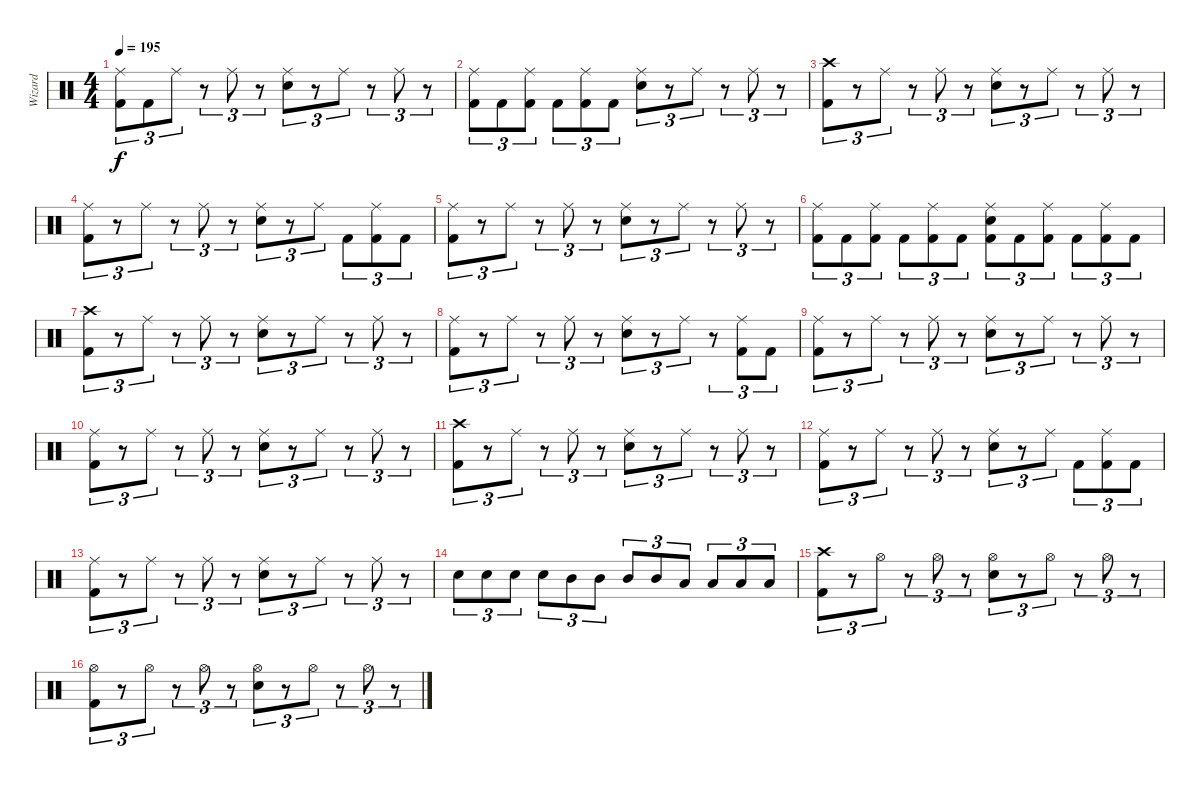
\track ("Wizard" "Wizard") {instrument percussion}
\staff {score}
\articulation defaults
\ts (4 4)
\tempo 195
\clef neutral
\ks c
("Ride (middle)" "Kick (hit) 2").8{tu (3 2) dy f} "Kick (hit) 2".8{tu (3 2)} "Ride (middle)".8{tu (3 2)} r.8{tu (3 2)} "Ride (middle)".8{tu (3 2)} r.8{tu (3 2)} ("Ride (middle)" "Snare (hit) 2").8{tu (3 2)} r.8{tu (3 2)} "Ride (middle)".8{tu (3 2)} r.8{tu (3 2)} "Ride (middle)".8{tu (3 2)} r.8{tu (3 2)} |
("Ride (middle)" "Kick (hit) 2").8{tu (3 2)} "Kick (hit) 2".8{tu (3 2)} ("Ride (middle)" "Kick (hit) 2").8{tu (3 2)} "Kick (hit) 2".8{tu (3 2)} ("Ride (middle)" "Kick (hit) 2").8{tu (3 2)} "Kick (hit) 2".8{tu (3 2)} ("Ride (middle)" "Snare (hit) 2").8{tu (3 2)} r.8{tu (3 2)} "Ride (middle)".8{tu (3 2)} r.8{tu (3 2)} "Ride (middle)".8{tu (3 2)} r.8{tu (3 2)} |
("Crash high (hit)" "Kick (hit) 2").8{tu (3 2)} r.8{tu (3 2)} "Ride (middle)".8{tu (3 2)} r.8{tu (3 2)} "Ride (middle)".8{tu (3 2)} r.8{tu (3 2)} ("Ride (middle)" "Snare (hit) 2").8{tu (3 2)} r.8{tu (3 2)} "Ride (middle)".8{tu (3 2)} r.8{tu (3 2)} "Ride (middle)".8{tu (3 2)} r.8{tu (3 2)} |
("Ride (middle)" "Kick (hit) 2").8{tu (3 2)} r.8{tu (3 2)} "Ride (middle)".8{tu (3 2)} r.8{tu (3 2)} "Ride (middle)".8{tu (3 2)} r.8{tu (3 2)} ("Ride (middle)" "Snare (hit) 2").8{tu (3 2)} r.8{tu (3 2)} "Ride (middle)".8{tu (3 2)} "Kick (hit) 2".8{tu (3 2)} ("Ride (middle)" "Kick (hit) 2").8{tu (3 2)} "Kick (hit) 2".8{tu (3 2)} |
("Ride (middle)" "Kick (hit) 2").8{tu (3 2)} r.8{tu (3 2)} "Ride (middle)".8{tu (3 2)} r.8{tu (3 2)} "Ride (middle)".8{tu (3 2)} r.8{tu (3 2)} ("Ride (middle)" "Snare (hit) 2").8{tu (3 2)} r.8{tu (3 2)} "Ride (middle)".8{tu (3 2)} r.8{tu (3 2)} "Ride (middle)".8{tu (3 2)} r.8{tu (3 2)} |
("Ride (middle)" "Kick (hit) 2").8{tu (3 2)} "Kick (hit) 2".8{tu (3 2)} ("Ride (middle)" "Kick (hit) 2").8{tu (3 2)} "Kick (hit) 2".8{tu (3 2)} ("Ride (middle)" "Kick (hit) 2").8{tu (3 2)} "Kick (hit) 2".8{tu (3 2)} ("Ride (middle)" "Snare (hit) 2" "Kick (hit) 2").8{tu (3 2)} "Kick (hit) 2".8{tu (3 2)} ("Ride (middle)" "Kick (hit) 2").8{tu (3 2)} "Kick (hit) 2".8{tu (3 2)} ("Ride (middle)" "Kick (hit) 2").8{tu (3 2)} "Kick (hit) 2".8{tu (3 2)} |
("Crash high (hit)" "Kick (hit) 2").8{tu (3 2)} r.8{tu (3 2)} "Ride (middle)".8{tu (3 2)} r.8{tu (3 2)} "Ride (middle)".8{tu (3 2)} r.8{tu (3 2)} ("Ride (middle)" "Snare (hit) 2").8{tu (3 2)} r.8{tu (3 2)} "Ride (middle)".8{tu (3 2)} r.8{tu (3 2)} "Ride (middle)".8{tu (3 2)} r.8{tu (3 2)} |
("Ride (middle)" "Kick (hit) 2").8{tu (3 2)} r.8{tu (3 2)} "Ride (middle)".8{tu (3 2)} r.8{tu (3 2)} "Ride (middle)".8{tu (3 2)} r.8{tu (3 2)} ("Ride (middle)" "Snare (hit) 2").8{tu (3 2)} r.8{tu (3 2)} "Ride (middle)".8{tu (3 2)} r.8{tu (3 2)} ("Ride (middle)" "Kick (hit) 2").8{tu (3 2)} "Kick (hit) 2".8{tu (3 2)} |
("Ride (middle)" "Kick (hit) 2").8{tu (3 2)} r.8{tu (3 2)} "Ride (middle)".8{tu (3 2)} r.8{tu (3 2)} "Ride (middle)".8{tu (3 2)} r.8{tu (3 2)} ("Ride (middle)" "Snare (hit) 2").8{tu (3 2)} r.8{tu (3 2)} "Ride (middle)".8{tu (3 2)} r.8{tu (3 2)} "Ride (middle)".8{tu (3 2)} r.8{tu (3 2)} |
("Ride (middle)" "Kick (hit) 2").8{tu (3 2)} r.8{tu (3 2)} "Ride (middle)".8{tu (3 2)} r.8{tu (3 2)} "Ride (middle)".8{tu (3 2)} r.8{tu (3 2)} ("Ride (middle)" "Snare (hit) 2").8{tu (3 2)} r.8{tu (3 2)} "Ride (middle)".8{tu (3 2)} r.8{tu (3 2)} "Ride (middle)".8{tu (3 2)} r.8{tu (3 2)} |
("Crash high (hit)" "Kick (hit) 2").8{tu (3 2)} r.8{tu (3 2)} "Ride (middle)".8{tu (3 2)} r.8{tu (3 2)} "Ride (middle)".8{tu (3 2)} r.8{tu (3 2)} ("Ride (middle)" "Snare (hit) 2").8{tu (3 2)} r.8{tu (3 2)} "Ride (middle)".8{tu (3 2)} r.8{tu (3 2)} "Ride (middle)".8{tu (3 2)} r.8{tu (3 2)} |
("Ride (middle)" "Kick (hit) 2").8{tu (3 2)} r.8{tu (3 2)} "Ride (middle)".8{tu (3 2)} r.8{tu (3 2)} "Ride (middle)".8{tu (3 2)} r.8{tu (3 2)} ("Ride (middle)" "Snare (hit) 2").8{tu (3 2)} r.8{tu (3 2)} "Ride (middle)".8{tu (3 2)} "Kick (hit) 2".8{tu (3 2)} ("Ride (middle)" "Kick (hit) 2").8{tu (3 2)} "Kick (hit) 2".8{tu (3 2)} |
("Ride (middle)" "Kick (hit) 2").8{tu (3 2)} r.8{tu (3 2)} "Ride (middle)".8{tu (3 2)} r.8{tu (3 2)} "Ride (middle)".8{tu (3 2)} r.8{tu (3 2)} ("Ride (middle)" "Snare (hit) 2").8{tu (3 2)} r.8{tu (3 2)} "Ride (middle)".8{tu (3 2)} r.8{tu (3 2)} "Ride (middle)".8{tu (3 2)} r.8{tu (3 2)} |
"Snare (hit) 2".8{tu (3 2)} "Snare (hit) 2".8{tu (3 2)} "Snare (hit) 2".8{tu (3 2)} "Snare (hit) 2".8{tu (3 2)} "Mid Tom (hit)".8{tu (3 2)} "Mid Tom (hit)".8{tu (3 2)} "Mid Tom (hit)".8{tu (3 2)} "Mid Tom (hit)".8{tu (3 2)} "Low Tom (hit)".8{tu (3 2)} "Low Tom (hit)".8{tu (3 2)} "Low Tom (hit)".8{tu (3 2)} "Low Tom (hit)".8{tu (3 2)} |
("Crash high (hit)" "Kick (hit) 2").8{tu (3 2)} r.8{tu (3 2)} "Hi-Hat (open)".8{tu (3 2)} r.8{tu (3 2)} "Hi-Hat (open)".8{tu (3 2)} r.8{tu (3 2)} ("Hi-Hat (open)" "Snare (hit) 2").8{tu (3 2)} r.8{tu (3 2)} "Hi-Hat (open)".8{tu (3 2)} r.8{tu (3 2)} "Hi-Hat (open)".8{tu (3 2)} r.8{tu (3 2)} |
("Hi-Hat (open)" "Kick (hit) 2").8{tu (3 2)} r.8{tu (3 2)} "Hi-Hat (open)".8{tu (3 2)} r.8{tu (3 2)} "Hi-Hat (open)".8{tu (3 2)} r.8{tu (3 2)} ("Hi-Hat (open)" "Snare (hit) 2").8{tu (3 2)} r.8{tu (3 2)} "Hi-Hat (open)".8{tu (3 2)} r.8{tu (3 2)} "Hi-Hat (open)".8{tu (3 2)} r.8{tu (3 2)}
